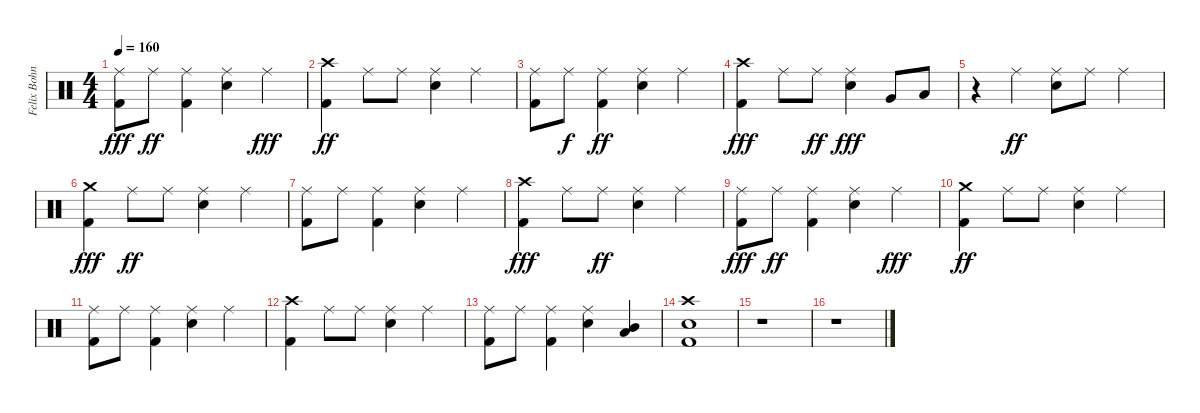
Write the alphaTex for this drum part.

\track ("Felix Bohnke" "Felix Bohn") {instrument percussion}
\staff {score}
\articulation defaults
\ts (4 4)
\tempo 160
\clef neutral
\ks c
("Kick (hit) 2" "Ride (middle)").8{dy fff} "Ride (middle)".8{dy ff} ("Kick (hit) 2" "Ride (middle)").4 ("Snare (hit) 2" "Ride (middle)").4 "Ride (middle)".4{dy fff} |
("Kick (hit) 2" "Crash high (hit)").4{dy ff} "Ride (middle)".8 "Ride (middle)".8 ("Snare (hit) 2" "Ride (middle)").4 "Ride (middle)".4 |
("Kick (hit) 2" "Ride (middle)").8 "Ride (middle)".8{dy f} ("Kick (hit) 2" "Ride (middle)").4{dy ff} ("Snare (hit) 2" "Ride (middle)").4 "Ride (middle)".4 |
("Kick (hit) 2" "Crash high (hit)").4{dy fff} "Ride (middle)".8 "Ride (middle)".8{dy ff} ("Snare (hit) 2" "Ride (middle)").4{dy fff} "Very Low Tom (hit)".8 "Low Tom (hit)".8 |
r.4 "Ride (middle)".4{dy ff} ("Snare (hit) 2" "Ride (middle)").8 "Ride (middle)".8 "Ride (middle)".4 |
("Kick (hit) 2" "Crash medium (hit)").4{dy fff} "Ride (middle)".8{dy ff} "Ride (middle)".8 ("Snare (hit) 2" "Ride (middle)").4 "Ride (middle)".4 |
("Kick (hit) 2" "Ride (middle)").8 "Ride (middle)".8 ("Kick (hit) 2" "Ride (middle)").4 ("Snare (hit) 2" "Ride (middle)").4 "Ride (middle)".4 |
("Kick (hit) 2" "Crash high (hit)").4{dy fff} "Ride (middle)".8 "Ride (middle)".8{dy ff} ("Snare (hit) 2" "Ride (middle)").4 "Ride (middle)".4 |
("Kick (hit) 2" "Ride (middle)").8{dy fff} "Ride (middle)".8{dy ff} ("Kick (hit) 2" "Ride (middle)").4 ("Snare (hit) 2" "Ride (middle)").4 "Ride (middle)".4{dy fff} |
("Kick (hit) 2" "Crash medium (hit)").4{dy ff} "Ride (middle)".8 "Ride (middle)".8 ("Snare (hit) 2" "Ride (middle)").4 "Ride (middle)".4 |
("Kick (hit) 2" "Ride (middle)").8 "Ride (middle)".8 ("Kick (hit) 2" "Ride (middle)").4 ("Snare (hit) 2" "Ride (middle)").4 "Ride (middle)".4 |
("Kick (hit) 2" "Crash high (hit)").4 "Ride (middle)".8 "Ride (middle)".8 ("Snare (hit) 2" "Ride (middle)").4 "Ride (middle)".4 |
("Kick (hit) 2" "Ride (middle)").8 "Ride (middle)".8 ("Kick (hit) 2" "Ride (middle)").4 ("Snare (hit) 2" "Ride (middle)").4 ("Low Tom (hit)" "Mid Tom (hit)").4 |
("Crash high (hit)" "Kick (hit) 2" "Snare (hit) 2").1 |
r.1 |
r.1
